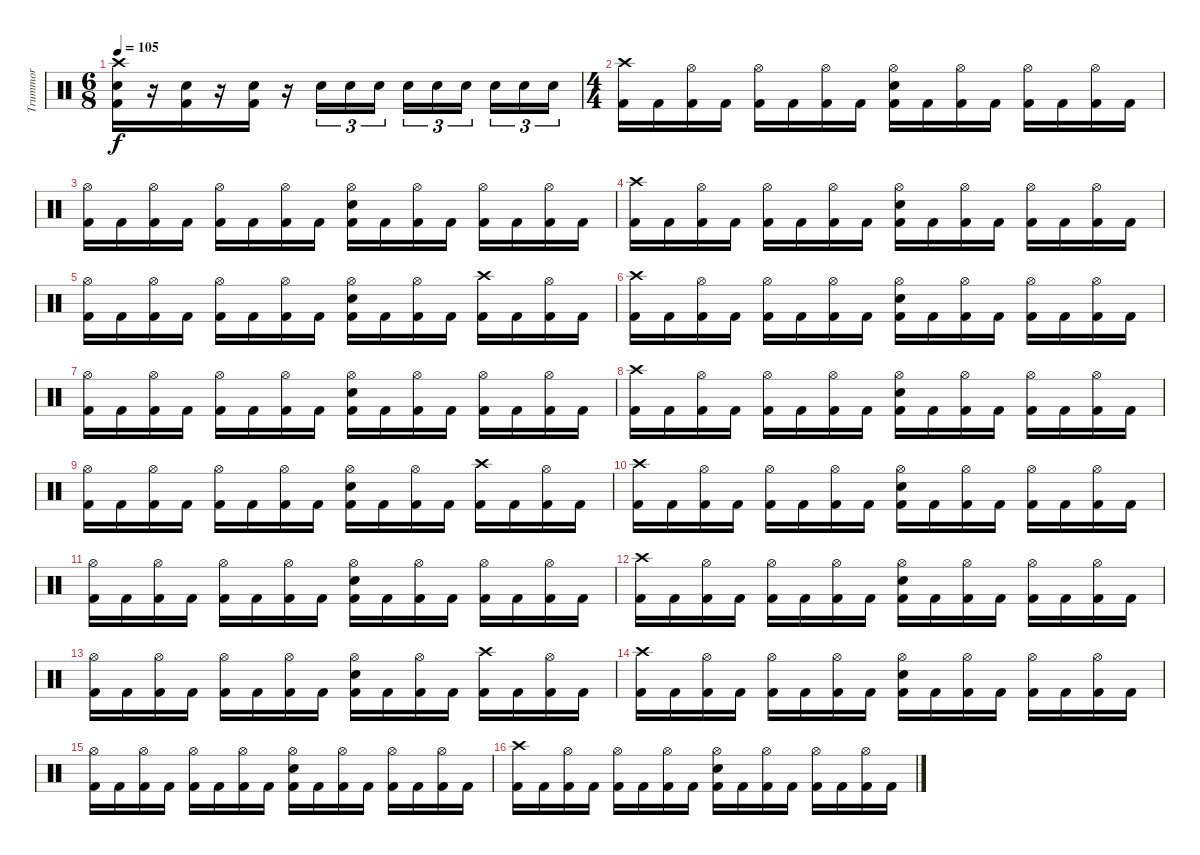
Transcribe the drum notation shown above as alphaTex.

\track ("Trummor" "Trummor") {instrument percussion}
\staff {score}
\articulation defaults
\ts (6 8)
\tempo 105
\clef neutral
\ks c
("Crash high (hit)" "Snare (hit) 2" "Kick (hit) 2").16{dy f} r.16 ("Snare (hit) 2" "Kick (hit) 2").16 r.16 ("Snare (hit) 2" "Kick (hit) 2").16 r.16 "Snare (hit) 2".16{tu (3 2)} "Snare (hit) 2".16{tu (3 2)} "Snare (hit) 2".16{tu (3 2) beam splitsecondary} "Snare (hit) 2".16{tu (3 2)} "Snare (hit) 2".16{tu (3 2)} "Snare (hit) 2".16{tu (3 2) beam splitsecondary} "Snare (hit) 2".16{tu (3 2)} "Snare (hit) 2".16{tu (3 2)} "Snare (hit) 2".16{tu (3 2)} |
\ts (4 4)
("Crash high (hit)" "Kick (hit) 2").16 "Kick (hit) 2".16 ("Hi-Hat (open)" "Kick (hit) 2").16 "Kick (hit) 2".16 ("Hi-Hat (open)" "Kick (hit) 2").16 "Kick (hit) 2".16 ("Hi-Hat (open)" "Kick (hit) 2").16 "Kick (hit) 2".16 ("Hi-Hat (open)" "Snare (hit) 2" "Kick (hit) 2").16 "Kick (hit) 2".16 ("Hi-Hat (open)" "Kick (hit) 2").16 "Kick (hit) 2".16 ("Hi-Hat (open)" "Kick (hit) 2").16 "Kick (hit) 2".16 ("Hi-Hat (open)" "Kick (hit) 2").16 "Kick (hit) 2".16 |
("Hi-Hat (open)" "Kick (hit) 2").16 "Kick (hit) 2".16 ("Hi-Hat (open)" "Kick (hit) 2").16 "Kick (hit) 2".16 ("Hi-Hat (open)" "Kick (hit) 2").16 "Kick (hit) 2".16 ("Hi-Hat (open)" "Kick (hit) 2").16 "Kick (hit) 2".16 ("Hi-Hat (open)" "Snare (hit) 2" "Kick (hit) 2").16 "Kick (hit) 2".16 ("Hi-Hat (open)" "Kick (hit) 2").16 "Kick (hit) 2".16 ("Hi-Hat (open)" "Kick (hit) 2").16 "Kick (hit) 2".16 ("Hi-Hat (open)" "Kick (hit) 2").16 "Kick (hit) 2".16 |
("Crash high (hit)" "Kick (hit) 2").16 "Kick (hit) 2".16 ("Hi-Hat (open)" "Kick (hit) 2").16 "Kick (hit) 2".16 ("Hi-Hat (open)" "Kick (hit) 2").16 "Kick (hit) 2".16 ("Hi-Hat (open)" "Kick (hit) 2").16 "Kick (hit) 2".16 ("Hi-Hat (open)" "Snare (hit) 2" "Kick (hit) 2").16 "Kick (hit) 2".16 ("Hi-Hat (open)" "Kick (hit) 2").16 "Kick (hit) 2".16 ("Hi-Hat (open)" "Kick (hit) 2").16 "Kick (hit) 2".16 ("Hi-Hat (open)" "Kick (hit) 2").16 "Kick (hit) 2".16 |
("Hi-Hat (open)" "Kick (hit) 2").16 "Kick (hit) 2".16 ("Hi-Hat (open)" "Kick (hit) 2").16 "Kick (hit) 2".16 ("Hi-Hat (open)" "Kick (hit) 2").16 "Kick (hit) 2".16 ("Hi-Hat (open)" "Kick (hit) 2").16 "Kick (hit) 2".16 ("Hi-Hat (open)" "Snare (hit) 2" "Kick (hit) 2").16 "Kick (hit) 2".16 ("Hi-Hat (open)" "Kick (hit) 2").16 "Kick (hit) 2".16 ("Crash high (hit)" "Kick (hit) 2").16 "Kick (hit) 2".16 ("Hi-Hat (open)" "Kick (hit) 2").16 "Kick (hit) 2".16 |
("Crash high (hit)" "Kick (hit) 2").16 "Kick (hit) 2".16 ("Hi-Hat (open)" "Kick (hit) 2").16 "Kick (hit) 2".16 ("Hi-Hat (open)" "Kick (hit) 2").16 "Kick (hit) 2".16 ("Hi-Hat (open)" "Kick (hit) 2").16 "Kick (hit) 2".16 ("Hi-Hat (open)" "Snare (hit) 2" "Kick (hit) 2").16 "Kick (hit) 2".16 ("Hi-Hat (open)" "Kick (hit) 2").16 "Kick (hit) 2".16 ("Hi-Hat (open)" "Kick (hit) 2").16 "Kick (hit) 2".16 ("Hi-Hat (open)" "Kick (hit) 2").16 "Kick (hit) 2".16 |
("Hi-Hat (open)" "Kick (hit) 2").16 "Kick (hit) 2".16 ("Hi-Hat (open)" "Kick (hit) 2").16 "Kick (hit) 2".16 ("Hi-Hat (open)" "Kick (hit) 2").16 "Kick (hit) 2".16 ("Hi-Hat (open)" "Kick (hit) 2").16 "Kick (hit) 2".16 ("Hi-Hat (open)" "Snare (hit) 2" "Kick (hit) 2").16 "Kick (hit) 2".16 ("Hi-Hat (open)" "Kick (hit) 2").16 "Kick (hit) 2".16 ("Hi-Hat (open)" "Kick (hit) 2").16 "Kick (hit) 2".16 ("Hi-Hat (open)" "Kick (hit) 2").16 "Kick (hit) 2".16 |
("Crash high (hit)" "Kick (hit) 2").16 "Kick (hit) 2".16 ("Hi-Hat (open)" "Kick (hit) 2").16 "Kick (hit) 2".16 ("Hi-Hat (open)" "Kick (hit) 2").16 "Kick (hit) 2".16 ("Hi-Hat (open)" "Kick (hit) 2").16 "Kick (hit) 2".16 ("Hi-Hat (open)" "Snare (hit) 2" "Kick (hit) 2").16 "Kick (hit) 2".16 ("Hi-Hat (open)" "Kick (hit) 2").16 "Kick (hit) 2".16 ("Hi-Hat (open)" "Kick (hit) 2").16 "Kick (hit) 2".16 ("Hi-Hat (open)" "Kick (hit) 2").16 "Kick (hit) 2".16 |
("Hi-Hat (open)" "Kick (hit) 2").16 "Kick (hit) 2".16 ("Hi-Hat (open)" "Kick (hit) 2").16 "Kick (hit) 2".16 ("Hi-Hat (open)" "Kick (hit) 2").16 "Kick (hit) 2".16 ("Hi-Hat (open)" "Kick (hit) 2").16 "Kick (hit) 2".16 ("Hi-Hat (open)" "Snare (hit) 2" "Kick (hit) 2").16 "Kick (hit) 2".16 ("Hi-Hat (open)" "Kick (hit) 2").16 "Kick (hit) 2".16 ("Crash high (hit)" "Kick (hit) 2").16 "Kick (hit) 2".16 ("Hi-Hat (open)" "Kick (hit) 2").16 "Kick (hit) 2".16 |
("Crash high (hit)" "Kick (hit) 2").16 "Kick (hit) 2".16 ("Hi-Hat (open)" "Kick (hit) 2").16 "Kick (hit) 2".16 ("Hi-Hat (open)" "Kick (hit) 2").16 "Kick (hit) 2".16 ("Hi-Hat (open)" "Kick (hit) 2").16 "Kick (hit) 2".16 ("Hi-Hat (open)" "Snare (hit) 2" "Kick (hit) 2").16 "Kick (hit) 2".16 ("Hi-Hat (open)" "Kick (hit) 2").16 "Kick (hit) 2".16 ("Hi-Hat (open)" "Kick (hit) 2").16 "Kick (hit) 2".16 ("Hi-Hat (open)" "Kick (hit) 2").16 "Kick (hit) 2".16 |
("Hi-Hat (open)" "Kick (hit) 2").16 "Kick (hit) 2".16 ("Hi-Hat (open)" "Kick (hit) 2").16 "Kick (hit) 2".16 ("Hi-Hat (open)" "Kick (hit) 2").16 "Kick (hit) 2".16 ("Hi-Hat (open)" "Kick (hit) 2").16 "Kick (hit) 2".16 ("Hi-Hat (open)" "Snare (hit) 2" "Kick (hit) 2").16 "Kick (hit) 2".16 ("Hi-Hat (open)" "Kick (hit) 2").16 "Kick (hit) 2".16 ("Hi-Hat (open)" "Kick (hit) 2").16 "Kick (hit) 2".16 ("Hi-Hat (open)" "Kick (hit) 2").16 "Kick (hit) 2".16 |
("Crash high (hit)" "Kick (hit) 2").16 "Kick (hit) 2".16 ("Hi-Hat (open)" "Kick (hit) 2").16 "Kick (hit) 2".16 ("Hi-Hat (open)" "Kick (hit) 2").16 "Kick (hit) 2".16 ("Hi-Hat (open)" "Kick (hit) 2").16 "Kick (hit) 2".16 ("Hi-Hat (open)" "Snare (hit) 2" "Kick (hit) 2").16 "Kick (hit) 2".16 ("Hi-Hat (open)" "Kick (hit) 2").16 "Kick (hit) 2".16 ("Hi-Hat (open)" "Kick (hit) 2").16 "Kick (hit) 2".16 ("Hi-Hat (open)" "Kick (hit) 2").16 "Kick (hit) 2".16 |
("Hi-Hat (open)" "Kick (hit) 2").16 "Kick (hit) 2".16 ("Hi-Hat (open)" "Kick (hit) 2").16 "Kick (hit) 2".16 ("Hi-Hat (open)" "Kick (hit) 2").16 "Kick (hit) 2".16 ("Hi-Hat (open)" "Kick (hit) 2").16 "Kick (hit) 2".16 ("Hi-Hat (open)" "Snare (hit) 2" "Kick (hit) 2").16 "Kick (hit) 2".16 ("Hi-Hat (open)" "Kick (hit) 2").16 "Kick (hit) 2".16 ("Crash high (hit)" "Kick (hit) 2").16 "Kick (hit) 2".16 ("Hi-Hat (open)" "Kick (hit) 2").16 "Kick (hit) 2".16 |
("Crash high (hit)" "Kick (hit) 2").16 "Kick (hit) 2".16 ("Hi-Hat (open)" "Kick (hit) 2").16 "Kick (hit) 2".16 ("Hi-Hat (open)" "Kick (hit) 2").16 "Kick (hit) 2".16 ("Hi-Hat (open)" "Kick (hit) 2").16 "Kick (hit) 2".16 ("Hi-Hat (open)" "Snare (hit) 2" "Kick (hit) 2").16 "Kick (hit) 2".16 ("Hi-Hat (open)" "Kick (hit) 2").16 "Kick (hit) 2".16 ("Hi-Hat (open)" "Kick (hit) 2").16 "Kick (hit) 2".16 ("Hi-Hat (open)" "Kick (hit) 2").16 "Kick (hit) 2".16 |
("Hi-Hat (open)" "Kick (hit) 2").16 "Kick (hit) 2".16 ("Hi-Hat (open)" "Kick (hit) 2").16 "Kick (hit) 2".16 ("Hi-Hat (open)" "Kick (hit) 2").16 "Kick (hit) 2".16 ("Hi-Hat (open)" "Kick (hit) 2").16 "Kick (hit) 2".16 ("Hi-Hat (open)" "Snare (hit) 2" "Kick (hit) 2").16 "Kick (hit) 2".16 ("Hi-Hat (open)" "Kick (hit) 2").16 "Kick (hit) 2".16 ("Hi-Hat (open)" "Kick (hit) 2").16 "Kick (hit) 2".16 ("Hi-Hat (open)" "Kick (hit) 2").16 "Kick (hit) 2".16 |
("Crash high (hit)" "Kick (hit) 2").16 "Kick (hit) 2".16 ("Hi-Hat (open)" "Kick (hit) 2").16 "Kick (hit) 2".16 ("Hi-Hat (open)" "Kick (hit) 2").16 "Kick (hit) 2".16 ("Hi-Hat (open)" "Kick (hit) 2").16 "Kick (hit) 2".16 ("Hi-Hat (open)" "Snare (hit) 2" "Kick (hit) 2").16 "Kick (hit) 2".16 ("Hi-Hat (open)" "Kick (hit) 2").16 "Kick (hit) 2".16 ("Hi-Hat (open)" "Kick (hit) 2").16 "Kick (hit) 2".16 ("Hi-Hat (open)" "Kick (hit) 2").16 "Kick (hit) 2".16
